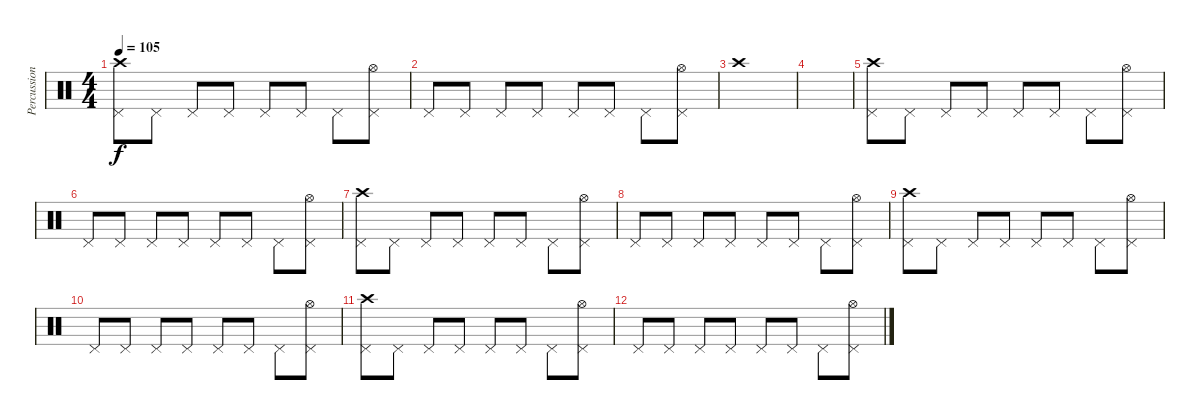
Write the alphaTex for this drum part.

\track ("Percussion" "Percussion") {instrument percussion}
\staff {score}
\articulation defaults
\ts (4 4)
\tempo 105
\clef neutral
\ks c
("Pedal Hi-Hat (hit)" "Crash high (hit)").8{dy f} "Pedal Hi-Hat (hit)".8 "Pedal Hi-Hat (hit)".8 "Pedal Hi-Hat (hit)".8 "Pedal Hi-Hat (hit)".8 "Pedal Hi-Hat (hit)".8 "Pedal Hi-Hat (hit)".8 ("Pedal Hi-Hat (hit)" "Hi-Hat (open)").8 |
"Pedal Hi-Hat (hit)".8 "Pedal Hi-Hat (hit)".8 "Pedal Hi-Hat (hit)".8 "Pedal Hi-Hat (hit)".8 "Pedal Hi-Hat (hit)".8 "Pedal Hi-Hat (hit)".8 "Pedal Hi-Hat (hit)".8 ("Pedal Hi-Hat (hit)" "Hi-Hat (open)").8 |
"Crash high (hit)".1 |
|
("Pedal Hi-Hat (hit)" "Crash high (hit)").8 "Pedal Hi-Hat (hit)".8 "Pedal Hi-Hat (hit)".8 "Pedal Hi-Hat (hit)".8 "Pedal Hi-Hat (hit)".8 "Pedal Hi-Hat (hit)".8 "Pedal Hi-Hat (hit)".8 ("Pedal Hi-Hat (hit)" "Hi-Hat (open)").8 |
"Pedal Hi-Hat (hit)".8 "Pedal Hi-Hat (hit)".8 "Pedal Hi-Hat (hit)".8 "Pedal Hi-Hat (hit)".8 "Pedal Hi-Hat (hit)".8 "Pedal Hi-Hat (hit)".8 "Pedal Hi-Hat (hit)".8 ("Pedal Hi-Hat (hit)" "Hi-Hat (open)").8 |
("Pedal Hi-Hat (hit)" "Crash high (hit)").8 "Pedal Hi-Hat (hit)".8 "Pedal Hi-Hat (hit)".8 "Pedal Hi-Hat (hit)".8 "Pedal Hi-Hat (hit)".8 "Pedal Hi-Hat (hit)".8 "Pedal Hi-Hat (hit)".8 ("Pedal Hi-Hat (hit)" "Hi-Hat (open)").8 |
"Pedal Hi-Hat (hit)".8 "Pedal Hi-Hat (hit)".8 "Pedal Hi-Hat (hit)".8 "Pedal Hi-Hat (hit)".8 "Pedal Hi-Hat (hit)".8 "Pedal Hi-Hat (hit)".8 "Pedal Hi-Hat (hit)".8 ("Pedal Hi-Hat (hit)" "Hi-Hat (open)").8 |
("Pedal Hi-Hat (hit)" "Crash high (hit)").8 "Pedal Hi-Hat (hit)".8 "Pedal Hi-Hat (hit)".8 "Pedal Hi-Hat (hit)".8 "Pedal Hi-Hat (hit)".8 "Pedal Hi-Hat (hit)".8 "Pedal Hi-Hat (hit)".8 ("Pedal Hi-Hat (hit)" "Hi-Hat (open)").8 |
"Pedal Hi-Hat (hit)".8 "Pedal Hi-Hat (hit)".8 "Pedal Hi-Hat (hit)".8 "Pedal Hi-Hat (hit)".8 "Pedal Hi-Hat (hit)".8 "Pedal Hi-Hat (hit)".8 "Pedal Hi-Hat (hit)".8 ("Pedal Hi-Hat (hit)" "Hi-Hat (open)").8 |
("Pedal Hi-Hat (hit)" "Crash high (hit)").8 "Pedal Hi-Hat (hit)".8 "Pedal Hi-Hat (hit)".8 "Pedal Hi-Hat (hit)".8 "Pedal Hi-Hat (hit)".8 "Pedal Hi-Hat (hit)".8 "Pedal Hi-Hat (hit)".8 ("Pedal Hi-Hat (hit)" "Hi-Hat (open)").8 |
"Pedal Hi-Hat (hit)".8 "Pedal Hi-Hat (hit)".8 "Pedal Hi-Hat (hit)".8 "Pedal Hi-Hat (hit)".8 "Pedal Hi-Hat (hit)".8 "Pedal Hi-Hat (hit)".8 "Pedal Hi-Hat (hit)".8 ("Pedal Hi-Hat (hit)" "Hi-Hat (open)").8
